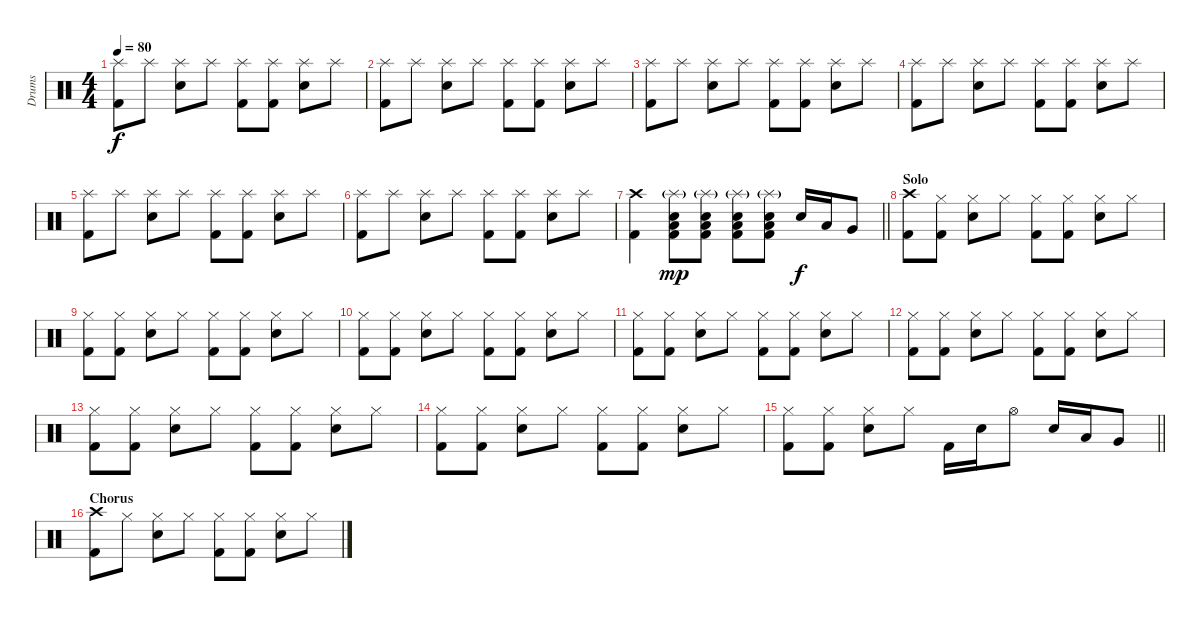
\track ("Drums" "Drums") {instrument percussion}
\staff {score}
\articulation defaults
\ts (4 4)
\tempo 80
\clef neutral
\ks c
("Splash (hit)" "Kick (hit) 2").8{dy f} "Splash (hit)".8 ("Splash (hit)" "Snare (hit) 2").8 "Splash (hit)".8 ("Splash (hit)" "Kick (hit) 2").8 ("Splash (hit)" "Kick (hit) 2").8 ("Splash (hit)" "Snare (hit) 2").8 "Splash (hit)".8 |
("Splash (hit)" "Kick (hit) 2").8 "Splash (hit)".8 ("Splash (hit)" "Snare (hit) 2").8 "Splash (hit)".8 ("Splash (hit)" "Kick (hit) 2").8 ("Splash (hit)" "Kick (hit) 2").8 ("Splash (hit)" "Snare (hit) 2").8 "Splash (hit)".8 |
("Splash (hit)" "Kick (hit) 2").8 "Splash (hit)".8 ("Splash (hit)" "Snare (hit) 2").8 "Splash (hit)".8 ("Splash (hit)" "Kick (hit) 2").8 ("Splash (hit)" "Kick (hit) 2").8 ("Splash (hit)" "Snare (hit) 2").8 "Splash (hit)".8 |
("Splash (hit)" "Kick (hit) 2").8 "Splash (hit)".8 ("Splash (hit)" "Snare (hit) 2").8 "Splash (hit)".8 ("Splash (hit)" "Kick (hit) 2").8 ("Splash (hit)" "Kick (hit) 2").8 ("Splash (hit)" "Snare (hit) 2").8 "Splash (hit)".8 |
("Splash (hit)" "Kick (hit) 2").8 "Splash (hit)".8 ("Splash (hit)" "Snare (hit) 2").8 "Splash (hit)".8 ("Splash (hit)" "Kick (hit) 2").8 ("Splash (hit)" "Kick (hit) 2").8 ("Splash (hit)" "Snare (hit) 2").8 "Splash (hit)".8 |
("Splash (hit)" "Kick (hit) 2").8 "Splash (hit)".8 ("Splash (hit)" "Snare (hit) 2").8 "Splash (hit)".8 ("Splash (hit)" "Kick (hit) 2").8 ("Splash (hit)" "Kick (hit) 2").8 ("Splash (hit)" "Snare (hit) 2").8 "Splash (hit)".8 |
\barLineRight lightlight
("Crash high (hit)" "Kick (hit) 2").4 ("Splash (hit)"{g} "Low Floor Tom (hit)" "Snare (hit) 2" "Kick (hit) 2").8{dy mp} ("Splash (hit)"{g} "Low Floor Tom (hit)" "Snare (hit) 2" "Kick (hit) 2").8 ("Splash (hit)"{g} "Low Floor Tom (hit)" "Snare (hit) 2" "Kick (hit) 2").8 ("Splash (hit)"{g} "Low Floor Tom (hit)" "Snare (hit) 2" "Kick (hit) 2").8 "Snare (hit) 2".16{dy f} "Low Tom (hit)".16 "Very Low Tom (hit)".8 |
\section ("" "Solo")
("Crash high (hit)" "Kick (hit) 2").8 ("Hi-Hat (closed)" "Kick (hit) 2").8 ("Hi-Hat (closed)" "Snare (hit) 2").8 "Hi-Hat (closed)".8 ("Hi-Hat (closed)" "Kick (hit) 2").8 ("Hi-Hat (closed)" "Kick (hit) 2").8 ("Hi-Hat (closed)" "Snare (hit) 2").8 "Hi-Hat (closed)".8 |
("Hi-Hat (closed)" "Kick (hit) 2").8 ("Hi-Hat (closed)" "Kick (hit) 2").8 ("Hi-Hat (closed)" "Snare (hit) 2").8 "Hi-Hat (closed)".8 ("Hi-Hat (closed)" "Kick (hit) 2").8 ("Hi-Hat (closed)" "Kick (hit) 2").8 ("Hi-Hat (closed)" "Snare (hit) 2").8 "Hi-Hat (closed)".8 |
("Hi-Hat (closed)" "Kick (hit) 2").8 ("Hi-Hat (closed)" "Kick (hit) 2").8 ("Hi-Hat (closed)" "Snare (hit) 2").8 "Hi-Hat (closed)".8 ("Hi-Hat (closed)" "Kick (hit) 2").8 ("Hi-Hat (closed)" "Kick (hit) 2").8 ("Hi-Hat (closed)" "Snare (hit) 2").8 "Hi-Hat (closed)".8 |
("Hi-Hat (closed)" "Kick (hit) 2").8 ("Hi-Hat (closed)" "Kick (hit) 2").8 ("Hi-Hat (closed)" "Snare (hit) 2").8 "Hi-Hat (closed)".8 ("Hi-Hat (closed)" "Kick (hit) 2").8 ("Hi-Hat (closed)" "Kick (hit) 2").8 ("Hi-Hat (closed)" "Snare (hit) 2").8 "Hi-Hat (closed)".8 |
("Hi-Hat (closed)" "Kick (hit) 2").8 ("Hi-Hat (closed)" "Kick (hit) 2").8 ("Hi-Hat (closed)" "Snare (hit) 2").8 "Hi-Hat (closed)".8 ("Hi-Hat (closed)" "Kick (hit) 2").8 ("Hi-Hat (closed)" "Kick (hit) 2").8 ("Hi-Hat (closed)" "Snare (hit) 2").8 "Hi-Hat (closed)".8 |
("Hi-Hat (closed)" "Kick (hit) 2").8 ("Hi-Hat (closed)" "Kick (hit) 2").8 ("Hi-Hat (closed)" "Snare (hit) 2").8 "Hi-Hat (closed)".8 ("Hi-Hat (closed)" "Kick (hit) 2").8 ("Hi-Hat (closed)" "Kick (hit) 2").8 ("Hi-Hat (closed)" "Snare (hit) 2").8 "Hi-Hat (closed)".8 |
("Hi-Hat (closed)" "Kick (hit) 2").8 ("Hi-Hat (closed)" "Kick (hit) 2").8 ("Hi-Hat (closed)" "Snare (hit) 2").8 "Hi-Hat (closed)".8 ("Hi-Hat (closed)" "Kick (hit) 2").8 ("Hi-Hat (closed)" "Kick (hit) 2").8 ("Hi-Hat (closed)" "Snare (hit) 2").8 "Hi-Hat (closed)".8 |
\barLineRight lightlight
("Hi-Hat (closed)" "Kick (hit) 2").8 ("Hi-Hat (closed)" "Kick (hit) 2").8 ("Hi-Hat (closed)" "Snare (hit) 2").8 "Hi-Hat (closed)".8 "Kick (hit) 2".16 "Snare (hit) 2".16 "Hi-Hat (open)".8 "Snare (hit) 2".16 "Low Tom (hit)".16 "Very Low Tom (hit)".8 |
\section ("" "Chorus")
("Crash high (hit)" "Kick (hit) 2").8 "Hi-Hat (closed)".8 ("Hi-Hat (closed)" "Snare (hit) 2").8 "Hi-Hat (closed)".8 ("Hi-Hat (closed)" "Kick (hit) 2").8 ("Hi-Hat (closed)" "Kick (hit) 2").8 ("Hi-Hat (closed)" "Snare (hit) 2").8 "Hi-Hat (closed)".8
